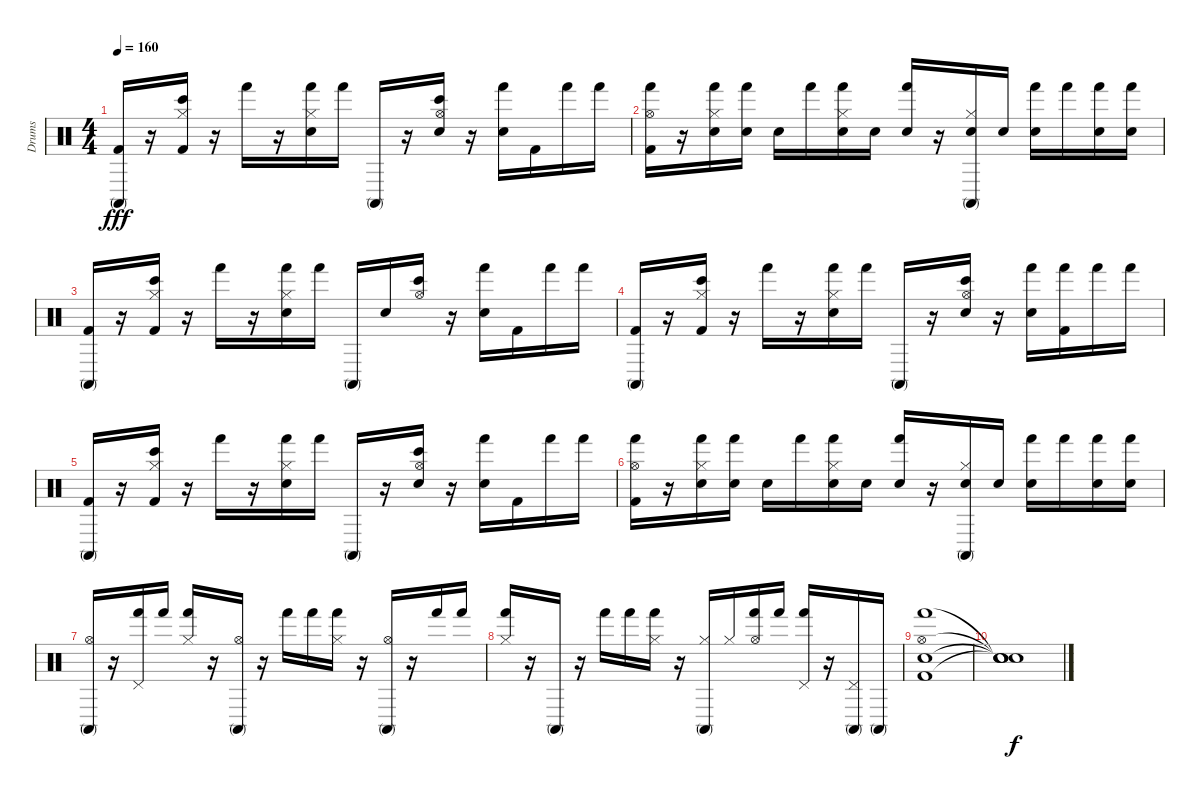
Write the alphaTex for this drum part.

\track ("Drums" "Drums") {instrument percussion}
\staff {score}
\articulation defaults
\ts (4 4)
\tempo 160
\clef neutral
\ks c
("Conga high (mute)" "Kick (hit) 2").16{dy fff} r.16 ("Bongo High (hit)" "Hi-Hat (closed)" "Kick (hit) 2").16 r.16 "Hand (hit)".16 r.16 ("Hi-Hat (closed)" "Hand (hit)" "Electric Snare (hit)").16 "Hand (hit)".16 "Conga high (mute)".16 r.16 ("Bongo High (hit)" "Hi-Hat (open)" "Electric Snare (hit)").16 r.16 ("Hand (hit)" "Electric Snare (hit)").16 "Kick (hit) 2".16 "Hand (hit)".16 "Hand (hit)".16 |
("Hand (hit)" "Kick (hit) 2" "Hi-Hat (open)").16 r.16 ("Hand (hit)" "Electric Snare (hit)" "Hi-Hat (closed)").16 ("Hand (hit)" "Electric Snare (hit)").16 "Electric Snare (hit)".16 "Hand (hit)".16 ("Hi-Hat (closed)" "Electric Snare (hit)" "Hand (hit)").16 "Electric Snare (hit)".16 ("Hand (hit)" "Electric Snare (hit)").16 r.16 ("Electric Snare (hit)" "Hi-Hat (closed)" "Conga high (mute)").16 "Electric Snare (hit)".16 ("Electric Snare (hit)" "Hand (hit)").16 "Hand (hit)".16 ("Electric Snare (hit)" "Hand (hit)").16 ("Hand (hit)" "Electric Snare (hit)").16 |
("Conga high (mute)" "Kick (hit) 2").16 r.16 ("Hi-Hat (closed)" "Kick (hit) 2" "Bongo High (hit)").16 r.16 "Hand (hit)".16 r.16 ("Hi-Hat (closed)" "Hand (hit)" "Electric Snare (hit)").16 "Hand (hit)".16 "Conga high (mute)".16 "Electric Snare (hit)".16 ("Bongo High (hit)" "Hi-Hat (open)").16 r.16 ("Hand (hit)" "Electric Snare (hit)").16 "Kick (hit) 2".16 "Hand (hit)".16 "Hand (hit)".16 |
("Conga high (mute)" "Kick (hit) 2").16 r.16 ("Kick (hit) 2" "Hi-Hat (closed)" "Bongo High (hit)").16 r.16 "Hand (hit)".16 r.16 ("Hi-Hat (closed)" "Hand (hit)" "Electric Snare (hit)").16 "Hand (hit)".16 "Conga high (mute)".16 r.16 ("Hi-Hat (open)" "Bongo High (hit)" "Electric Snare (hit)").16 r.16 ("Hand (hit)" "Electric Snare (hit)").16 ("Hand (hit)" "Kick (hit) 2").16 "Hand (hit)".16 "Hand (hit)".16 |
("Conga high (mute)" "Kick (hit) 2").16 r.16 ("Kick (hit) 2" "Bongo High (hit)" "Hi-Hat (closed)").16 r.16 "Hand (hit)".16 r.16 ("Hi-Hat (closed)" "Electric Snare (hit)" "Hand (hit)").16 "Hand (hit)".16 "Conga high (mute)".16 r.16 ("Bongo High (hit)" "Electric Snare (hit)" "Hi-Hat (open)").16 r.16 ("Electric Snare (hit)" "Hand (hit)").16 "Kick (hit) 2".16 "Hand (hit)".16 "Hand (hit)".16 |
("Hi-Hat (open)" "Kick (hit) 2" "Hand (hit)").16 r.16 ("Hi-Hat (closed)" "Hand (hit)" "Electric Snare (hit)").16 ("Electric Snare (hit)" "Hand (hit)").16 "Electric Snare (hit)".16 "Hand (hit)".16 ("Hand (hit)" "Electric Snare (hit)" "Hi-Hat (closed)").16 "Electric Snare (hit)".16 ("Hand (hit)" "Electric Snare (hit)").16 r.16 ("Conga high (mute)" "Electric Snare (hit)" "Hi-Hat (closed)").16 "Electric Snare (hit)".16 ("Electric Snare (hit)" "Hand (hit)").16 "Hand (hit)".16 ("Electric Snare (hit)" "Hand (hit)").16 ("Electric Snare (hit)" "Hand (hit)").16 |
("Hi-Hat (open)" "Conga high (mute)").16 r.16 ("Pedal Hi-Hat (hit)" "Hand (hit)").16 "Hand (hit)".16 ("Hand (hit)" "Hi-Hat (closed)").16 r.16 ("Conga high (mute)" "Hi-Hat (open)").16 r.16 "Hand (hit)".16 "Hand (hit)".16 ("Hi-Hat (closed)" "Hand (hit)").16 r.16 ("Hi-Hat (open)" "Conga high (mute)").16 r.16 "Hand (hit)".16 "Hand (hit)".16 |
("Hand (hit)" "Hi-Hat (closed)").16 r.16 "Conga high (mute)".16 r.16 "Hand (hit)".16 "Hand (hit)".16 ("Hand (hit)" "Hi-Hat (closed)").16 r.16 ("Hi-Hat (closed)" "Conga high (mute)").16 "Hi-Hat (closed)".16 ("Hand (hit)" "Hi-Hat (open)").16 "Hand (hit)".16 ("Hand (hit)" "Pedal Hi-Hat (hit)").16 r.16 ("Conga high (mute)" "Pedal Hi-Hat (hit)").16 "Conga high (mute)".16 |
("Kick (hit) 2" "Hand (hit)" "Electric Snare (hit)" "Hi-Hat (open)").1 |
("Snare (hit)"{t} "Snare (hit)"{t} "Snare (hit)"{t} "Snare (hit)"{t}).1{dy f}
